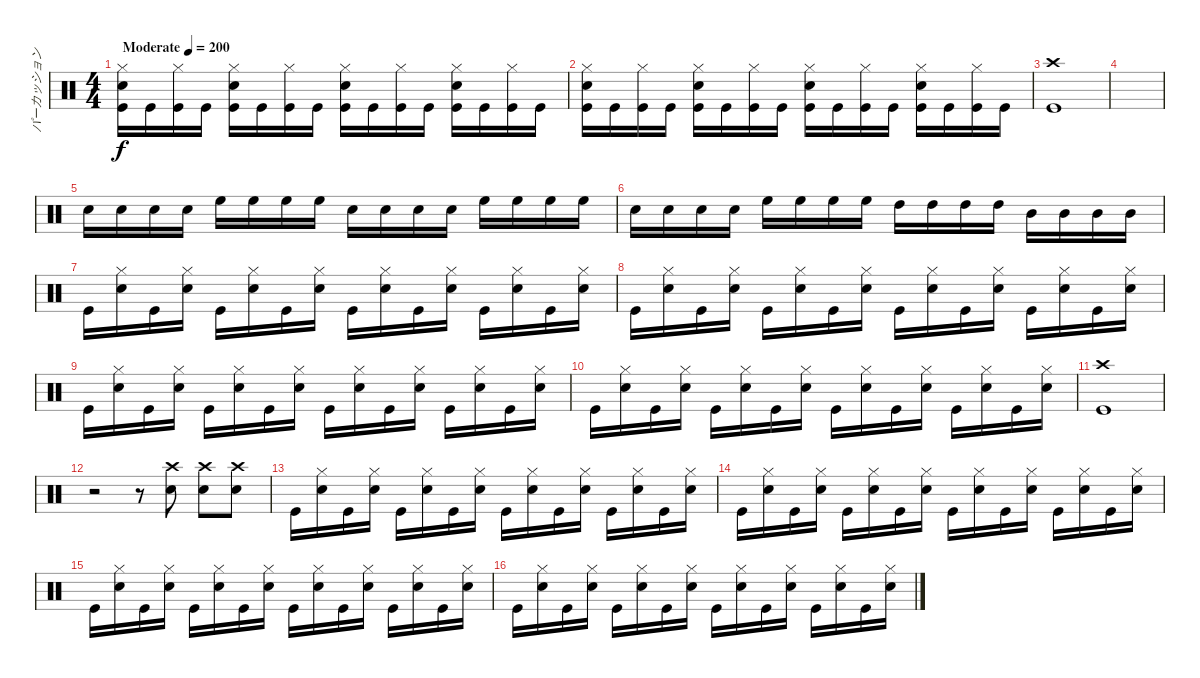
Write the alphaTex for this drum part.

\track ("パーカッション" "パーカッション") {instrument percussion}
\staff {score}
\articulation defaults
\ts (4 4)
\tempo (200 "Moderate")
\clef neutral
\ks c
("Hi-Hat (closed)" "Snare (hit) 2" "Kick (hit)").16{dy f} "Kick (hit)".16 ("Hi-Hat (closed)" "Kick (hit)").16 "Kick (hit)".16 ("Hi-Hat (closed)" "Snare (hit) 2" "Kick (hit)").16 "Kick (hit)".16 ("Hi-Hat (closed)" "Kick (hit)").16 "Kick (hit)".16 ("Hi-Hat (closed)" "Snare (hit) 2" "Kick (hit)").16 "Kick (hit)".16 ("Hi-Hat (closed)" "Kick (hit)").16 "Kick (hit)".16 ("Hi-Hat (closed)" "Snare (hit) 2" "Kick (hit)").16 "Kick (hit)".16 ("Hi-Hat (closed)" "Kick (hit)").16 "Kick (hit)".16 |
("Hi-Hat (closed)" "Snare (hit) 2" "Kick (hit)").16 "Kick (hit)".16 ("Hi-Hat (closed)" "Kick (hit)").16 "Kick (hit)".16 ("Hi-Hat (closed)" "Snare (hit) 2" "Kick (hit)").16 "Kick (hit)".16 ("Hi-Hat (closed)" "Kick (hit)").16 "Kick (hit)".16 ("Hi-Hat (closed)" "Snare (hit) 2" "Kick (hit)").16 "Kick (hit)".16 ("Hi-Hat (closed)" "Kick (hit)").16 "Kick (hit)".16 ("Hi-Hat (closed)" "Snare (hit) 2" "Kick (hit)").16 "Kick (hit)".16 ("Hi-Hat (closed)" "Kick (hit)").16 "Kick (hit)".16 |
("Crash high (hit)" "Kick (hit)").1 |
|
"Snare (hit) 2".16 "Snare (hit) 2".16 "Snare (hit) 2".16 "Snare (hit) 2".16 "High Floor Tom (hit)".16 "High Floor Tom (hit)".16 "High Floor Tom (hit)".16 "High Floor Tom (hit)".16 "Snare (hit) 2".16 "Snare (hit) 2".16 "Snare (hit) 2".16 "Snare (hit) 2".16 "High Floor Tom (hit)".16 "High Floor Tom (hit)".16 "High Floor Tom (hit)".16 "High Floor Tom (hit)".16 |
"Snare (hit) 2".16 "Snare (hit) 2".16 "Snare (hit) 2".16 "Snare (hit) 2".16 "High Floor Tom (hit)".16 "High Floor Tom (hit)".16 "High Floor Tom (hit)".16 "High Floor Tom (hit)".16 "High Tom (hit)".16 "High Tom (hit)".16 "High Tom (hit)".16 "High Tom (hit)".16 "Mid Tom (hit)".16 "Mid Tom (hit)".16 "Mid Tom (hit)".16 "Mid Tom (hit)".16 |
"Kick (hit)".16 ("Hi-Hat (closed)" "Snare (hit) 2").16 "Kick (hit)".16 ("Hi-Hat (closed)" "Snare (hit) 2").16 "Kick (hit)".16 ("Hi-Hat (closed)" "Snare (hit) 2").16 "Kick (hit)".16 ("Hi-Hat (closed)" "Snare (hit) 2").16 "Kick (hit)".16 ("Hi-Hat (closed)" "Snare (hit) 2").16 "Kick (hit)".16 ("Hi-Hat (closed)" "Snare (hit) 2").16 "Kick (hit)".16 ("Hi-Hat (closed)" "Snare (hit) 2").16 "Kick (hit)".16 ("Hi-Hat (closed)" "Snare (hit) 2").16 |
"Kick (hit)".16 ("Hi-Hat (closed)" "Snare (hit) 2").16 "Kick (hit)".16 ("Hi-Hat (closed)" "Snare (hit) 2").16 "Kick (hit)".16 ("Hi-Hat (closed)" "Snare (hit) 2").16 "Kick (hit)".16 ("Hi-Hat (closed)" "Snare (hit) 2").16 "Kick (hit)".16 ("Hi-Hat (closed)" "Snare (hit) 2").16 "Kick (hit)".16 ("Hi-Hat (closed)" "Snare (hit) 2").16 "Kick (hit)".16 ("Hi-Hat (closed)" "Snare (hit) 2").16 "Kick (hit)".16 ("Hi-Hat (closed)" "Snare (hit) 2").16 |
"Kick (hit)".16 ("Hi-Hat (closed)" "Snare (hit) 2").16 "Kick (hit)".16 ("Hi-Hat (closed)" "Snare (hit) 2").16 "Kick (hit)".16 ("Hi-Hat (closed)" "Snare (hit) 2").16 "Kick (hit)".16 ("Hi-Hat (closed)" "Snare (hit) 2").16 "Kick (hit)".16 ("Hi-Hat (closed)" "Snare (hit) 2").16 "Kick (hit)".16 ("Hi-Hat (closed)" "Snare (hit) 2").16 "Kick (hit)".16 ("Hi-Hat (closed)" "Snare (hit) 2").16 "Kick (hit)".16 ("Hi-Hat (closed)" "Snare (hit) 2").16 |
"Kick (hit)".16 ("Hi-Hat (closed)" "Snare (hit) 2").16 "Kick (hit)".16 ("Hi-Hat (closed)" "Snare (hit) 2").16 "Kick (hit)".16 ("Hi-Hat (closed)" "Snare (hit) 2").16 "Kick (hit)".16 ("Hi-Hat (closed)" "Snare (hit) 2").16 "Kick (hit)".16 ("Hi-Hat (closed)" "Snare (hit) 2").16 "Kick (hit)".16 ("Hi-Hat (closed)" "Snare (hit) 2").16 "Kick (hit)".16 ("Hi-Hat (closed)" "Snare (hit) 2").16 "Kick (hit)".16 ("Hi-Hat (closed)" "Snare (hit) 2").16 |
("Crash high (hit)" "Kick (hit)").1 |
r.2 r.8 ("Crash high (hit)" "Snare (hit) 2").8 ("Crash high (hit)" "Snare (hit) 2").8 ("Crash high (hit)" "Snare (hit) 2").8 |
"Kick (hit)".16 ("Hi-Hat (closed)" "Snare (hit) 2").16 "Kick (hit)".16 ("Hi-Hat (closed)" "Snare (hit) 2").16 "Kick (hit)".16 ("Hi-Hat (closed)" "Snare (hit) 2").16 "Kick (hit)".16 ("Hi-Hat (closed)" "Snare (hit) 2").16 "Kick (hit)".16 ("Hi-Hat (closed)" "Snare (hit) 2").16 "Kick (hit)".16 ("Hi-Hat (closed)" "Snare (hit) 2").16 "Kick (hit)".16 ("Hi-Hat (closed)" "Snare (hit) 2").16 "Kick (hit)".16 ("Hi-Hat (closed)" "Snare (hit) 2").16 |
"Kick (hit)".16 ("Hi-Hat (closed)" "Snare (hit) 2").16 "Kick (hit)".16 ("Hi-Hat (closed)" "Snare (hit) 2").16 "Kick (hit)".16 ("Hi-Hat (closed)" "Snare (hit) 2").16 "Kick (hit)".16 ("Hi-Hat (closed)" "Snare (hit) 2").16 "Kick (hit)".16 ("Hi-Hat (closed)" "Snare (hit) 2").16 "Kick (hit)".16 ("Hi-Hat (closed)" "Snare (hit) 2").16 "Kick (hit)".16 ("Hi-Hat (closed)" "Snare (hit) 2").16 "Kick (hit)".16 ("Hi-Hat (closed)" "Snare (hit) 2").16 |
"Kick (hit)".16 ("Hi-Hat (closed)" "Snare (hit) 2").16 "Kick (hit)".16 ("Hi-Hat (closed)" "Snare (hit) 2").16 "Kick (hit)".16 ("Hi-Hat (closed)" "Snare (hit) 2").16 "Kick (hit)".16 ("Hi-Hat (closed)" "Snare (hit) 2").16 "Kick (hit)".16 ("Hi-Hat (closed)" "Snare (hit) 2").16 "Kick (hit)".16 ("Hi-Hat (closed)" "Snare (hit) 2").16 "Kick (hit)".16 ("Hi-Hat (closed)" "Snare (hit) 2").16 "Kick (hit)".16 ("Hi-Hat (closed)" "Snare (hit) 2").16 |
"Kick (hit)".16 ("Hi-Hat (closed)" "Snare (hit) 2").16 "Kick (hit)".16 ("Hi-Hat (closed)" "Snare (hit) 2").16 "Kick (hit)".16 ("Hi-Hat (closed)" "Snare (hit) 2").16 "Kick (hit)".16 ("Hi-Hat (closed)" "Snare (hit) 2").16 "Kick (hit)".16 ("Hi-Hat (closed)" "Snare (hit) 2").16 "Kick (hit)".16 ("Hi-Hat (closed)" "Snare (hit) 2").16 "Kick (hit)".16 ("Hi-Hat (closed)" "Snare (hit) 2").16 "Kick (hit)".16 ("Hi-Hat (closed)" "Snare (hit) 2").16
